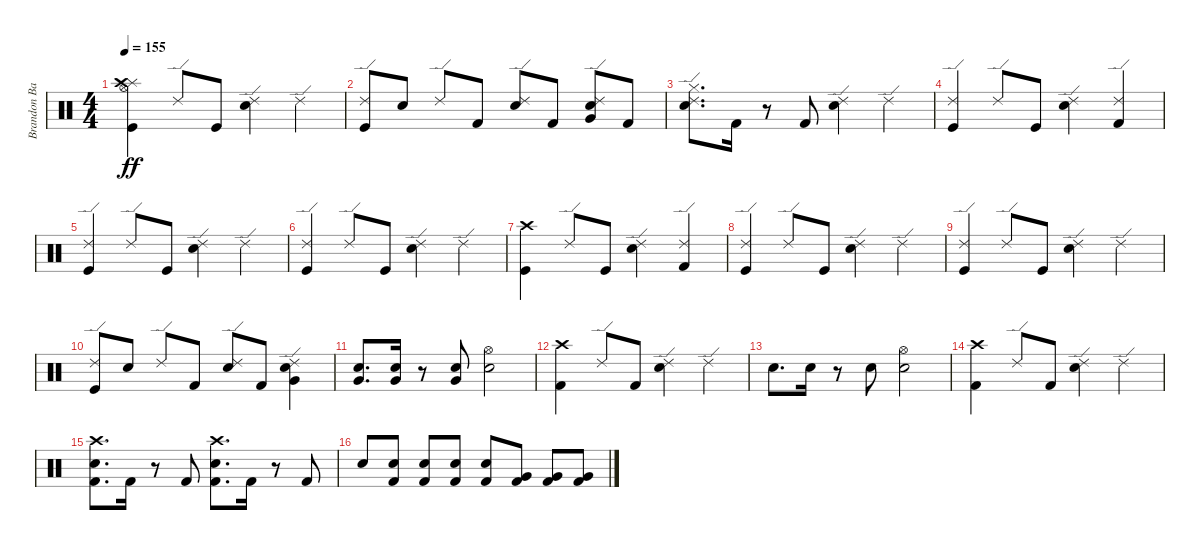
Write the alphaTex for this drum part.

\track ("Brandon Barnes - Drums" "Brandon Ba") {instrument percussion}
\staff {score}
\articulation defaults
\ts (4 4)
\tempo 155
\clef neutral
\ks c
("Kick (hit)" "Splash (hit)" "Hi-Hat (open)" "Crash high (hit)").4{dy ff} "Ride (edge) 2".8 "Kick (hit)".8 ("Snare (hit) 2" "Ride (edge) 2").4 "Ride (edge) 2".4 |
("Kick (hit)" "Ride (edge) 2").8 "Snare (hit) 2".8 "Ride (edge) 2".8 "Kick (hit) 2".8 ("Snare (hit) 2" "Ride (edge) 2").8 "Kick (hit) 2".8 ("Snare (hit) 2" "Very Low Tom (hit)" "Ride (edge) 2").8 "Kick (hit) 2".8 |
("Ride (edge) 2" "Electric Snare (hit)" "Hi-Hat (closed)").8{d} "Kick (hit) 2".16 r.8 "Kick (hit) 2".8 ("Snare (hit) 2" "Ride (edge) 2").4 "Ride (edge) 2".4 |
("Kick (hit)" "Ride (edge) 2").4 "Ride (edge) 2".8 "Kick (hit)".8 ("Snare (hit) 2" "Ride (edge) 2").4 ("Ride (edge) 2" "Kick (hit) 2").4 |
("Kick (hit)" "Ride (edge) 2").4 "Ride (edge) 2".8 "Kick (hit)".8 ("Snare (hit) 2" "Ride (edge) 2").4 "Ride (edge) 2".4 |
("Kick (hit)" "Ride (edge) 2").4 "Ride (edge) 2".8 "Kick (hit)".8 ("Snare (hit) 2" "Ride (edge) 2").4 "Ride (edge) 2".4 |
("Kick (hit)" "Crash high (hit)").4 "Ride (edge) 2".8 "Kick (hit)".8 ("Snare (hit) 2" "Ride (edge) 2").4 ("Ride (edge) 2" "Kick (hit) 2").4 |
("Kick (hit)" "Ride (edge) 2").4 "Ride (edge) 2".8 "Kick (hit)".8 ("Snare (hit) 2" "Ride (edge) 2").4 "Ride (edge) 2".4 |
("Kick (hit)" "Ride (edge) 2").4 "Ride (edge) 2".8 "Kick (hit)".8 ("Snare (hit) 2" "Ride (edge) 2").4 "Ride (edge) 2".4 |
("Kick (hit)" "Ride (edge) 2").8 "Snare (hit) 2".8 "Ride (edge) 2".8 "Kick (hit) 2".8 ("Snare (hit) 2" "Ride (edge) 2").8 "Kick (hit) 2".8 ("Snare (hit) 2" "Very Low Tom (hit)" "Ride (edge) 2").4 |
("Snare (hit) 2" "Very Low Tom (hit)").8{d} ("Snare (hit) 2" "Very Low Tom (hit)").16 r.8 ("Snare (hit) 2" "Very Low Tom (hit)").8 ("Snare (hit) 2" "Hi-Hat (open)").2 |
("Crash high (hit)" "Kick (hit) 2").4 "Ride (edge) 2".8 "Kick (hit) 2".8 ("Snare (hit) 2" "Ride (edge) 2").4 "Ride (edge) 2".4 |
"Snare (hit) 2".8{d} "Snare (hit) 2".16 r.8 "Snare (hit) 2".8 ("Snare (hit) 2" "Hi-Hat (open)").2 |
("Crash high (hit)" "Kick (hit) 2").4 "Ride (edge) 2".8 "Kick (hit) 2".8 ("Snare (hit) 2" "Ride (edge) 2").4 "Ride (edge) 2".4 |
("Snare (hit) 2" "Kick (hit) 2" "Crash high (hit)").8{d} "Kick (hit) 2".16 r.8 "Kick (hit) 2".8 ("Snare (hit) 2" "Kick (hit) 2" "Crash high (hit)").8{d} "Kick (hit) 2".16 r.8 "Kick (hit) 2".8 |
"Snare (hit) 2".8 ("Snare (hit) 2" "Kick (hit) 2").8 ("Snare (hit) 2" "Kick (hit) 2").8 ("Snare (hit) 2" "Kick (hit) 2").8 ("Snare (hit) 2" "Kick (hit) 2").8 ("Very Low Tom (hit)" "Kick (hit) 2").8 ("Very Low Tom (hit)" "Kick (hit) 2").8 ("Very Low Tom (hit)" "Kick (hit) 2").8
